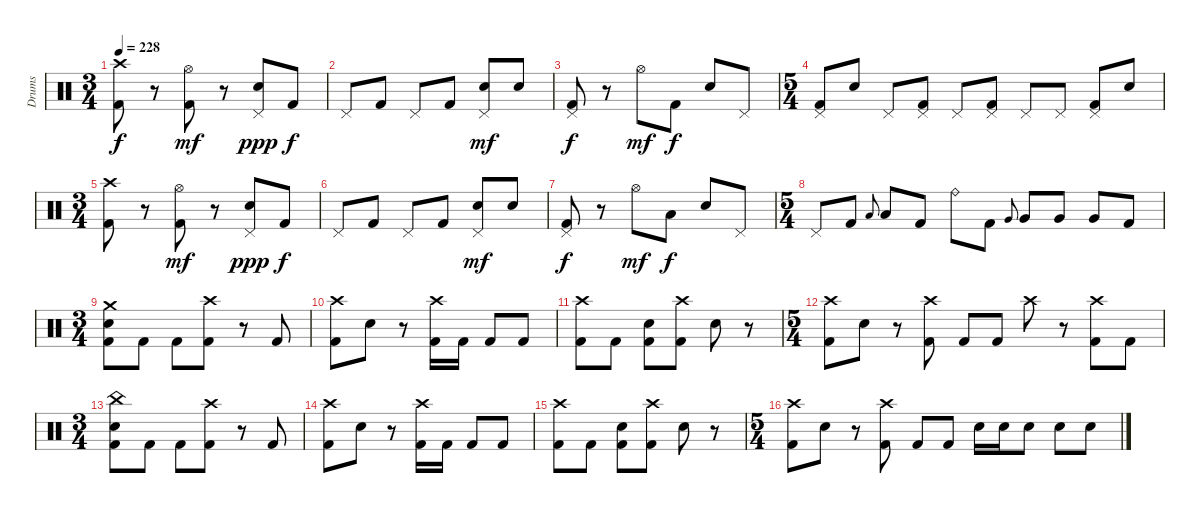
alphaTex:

\track ("Drums" "Drums") {instrument percussion}
\staff {score}
\articulation defaults
\ts (3 4)
\tempo 228
\clef neutral
\ks c
("Crash high (hit)" "Kick (hit) 2").8{dy f} r.8 ("Hi-Hat (open)" "Kick (hit) 2").8{dy mf} r.8 ("Electric Snare (hit)" "Pedal Hi-Hat (hit)").8{dy ppp} "Kick (hit) 2".8{dy f} |
"Pedal Hi-Hat (hit)".8 "Kick (hit) 2".8 "Pedal Hi-Hat (hit)".8 "Kick (hit) 2".8 ("Electric Snare (hit)" "Pedal Hi-Hat (hit)").8{dy mf} "Electric Snare (hit)".8 |
("Pedal Hi-Hat (hit)" "Kick (hit) 2").8{dy f} r.8 "Hi-Hat (open)".8{dy mf} "Kick (hit) 2".8{dy f} "Electric Snare (hit)".8 "Pedal Hi-Hat (hit)".8 |
\ts (5 4)
("Kick (hit) 2" "Pedal Hi-Hat (hit)").8 "Electric Snare (hit)".8 "Pedal Hi-Hat (hit)".8 ("Pedal Hi-Hat (hit)" "Kick (hit) 2").8 "Pedal Hi-Hat (hit)".8 ("Pedal Hi-Hat (hit)" "Kick (hit) 2").8 "Pedal Hi-Hat (hit)".8 "Pedal Hi-Hat (hit)".8 ("Pedal Hi-Hat (hit)" "Kick (hit) 2").8 "Electric Snare (hit)".8 |
\ts (3 4)
("Crash high (hit)" "Kick (hit) 2").8 r.8 ("Hi-Hat (open)" "Kick (hit) 2").8{dy mf} r.8 ("Electric Snare (hit)" "Pedal Hi-Hat (hit)").8{dy ppp} "Kick (hit) 2".8{dy f} |
"Pedal Hi-Hat (hit)".8 "Kick (hit) 2".8 "Pedal Hi-Hat (hit)".8 "Kick (hit) 2".8 ("Electric Snare (hit)" "Pedal Hi-Hat (hit)").8{dy mf} "Electric Snare (hit)".8 |
("Pedal Hi-Hat (hit)" "Kick (hit) 2").8{dy f} r.8 "Hi-Hat (open)".8{dy mf} "Low Tom (hit)".8{dy f} "Electric Snare (hit)".8 "Pedal Hi-Hat (hit)".8 |
\ts (5 4)
"Pedal Hi-Hat (hit)".8 "Kick (hit) 2".8 "Low Tom (hit)".8{gr onbeat} "Low Tom (hit)".8 "Kick (hit) 2".8 "Ride (bell)".8 "Kick (hit) 2".8 "Very Low Tom (hit)".8{gr onbeat} "Very Low Tom (hit)".8 "Very Low Tom (hit)".8 "Very Low Tom (hit)".8 "Kick (hit) 2".8 |
\ts (3 4)
("Crash medium (hit)" "Electric Snare (hit)" "Kick (hit) 2").8 "Kick (hit) 2".8 "Kick (hit) 2".8 ("Crash high (hit)" "Kick (hit) 2").8 r.8 "Kick (hit) 2".8 |
("Crash high (hit)" "Kick (hit) 2").8 "Electric Snare (hit)".8 r.8 ("Crash high (hit)" "Kick (hit) 2").16 "Kick (hit) 2".16 "Kick (hit) 2".8 "Kick (hit) 2".8 |
("Crash high (hit)" "Kick (hit) 2").8 "Kick (hit) 2".8 ("Electric Snare (hit)" "Kick (hit) 2").8 ("Crash high (hit)" "Kick (hit) 2").8 "Electric Snare (hit)".8 r.8 |
\ts (5 4)
("Crash high (hit)" "Kick (hit) 2").8 "Electric Snare (hit)".8 r.8 ("Crash high (hit)" "Kick (hit) 2").8 "Kick (hit) 2".8 "Kick (hit) 2".8 "Crash high (hit)".8 r.8 ("Crash high (hit)" "Kick (hit) 2").8 "Kick (hit) 2".8 |
\ts (3 4)
("China (hit)" "Electric Snare (hit)" "Kick (hit) 2").8 "Kick (hit) 2".8 "Kick (hit) 2".8 ("Crash high (hit)" "Kick (hit) 2").8 r.8 "Kick (hit) 2".8 |
("Crash high (hit)" "Kick (hit) 2").8 "Electric Snare (hit)".8 r.8 ("Crash high (hit)" "Kick (hit) 2").16 "Kick (hit) 2".16 "Kick (hit) 2".8 "Kick (hit) 2".8 |
("Crash high (hit)" "Kick (hit) 2").8 "Kick (hit) 2".8 ("Electric Snare (hit)" "Kick (hit) 2").8 ("Crash high (hit)" "Kick (hit) 2").8 "Electric Snare (hit)".8 r.8 |
\ts (5 4)
("Crash high (hit)" "Kick (hit) 2").8 "Electric Snare (hit)".8 r.8 ("Crash high (hit)" "Kick (hit) 2").8 "Kick (hit) 2".8 "Kick (hit) 2".8 "Electric Snare (hit)".16 "Electric Snare (hit)".16 "Electric Snare (hit)".8 "Electric Snare (hit)".8 "Electric Snare (hit)".8
